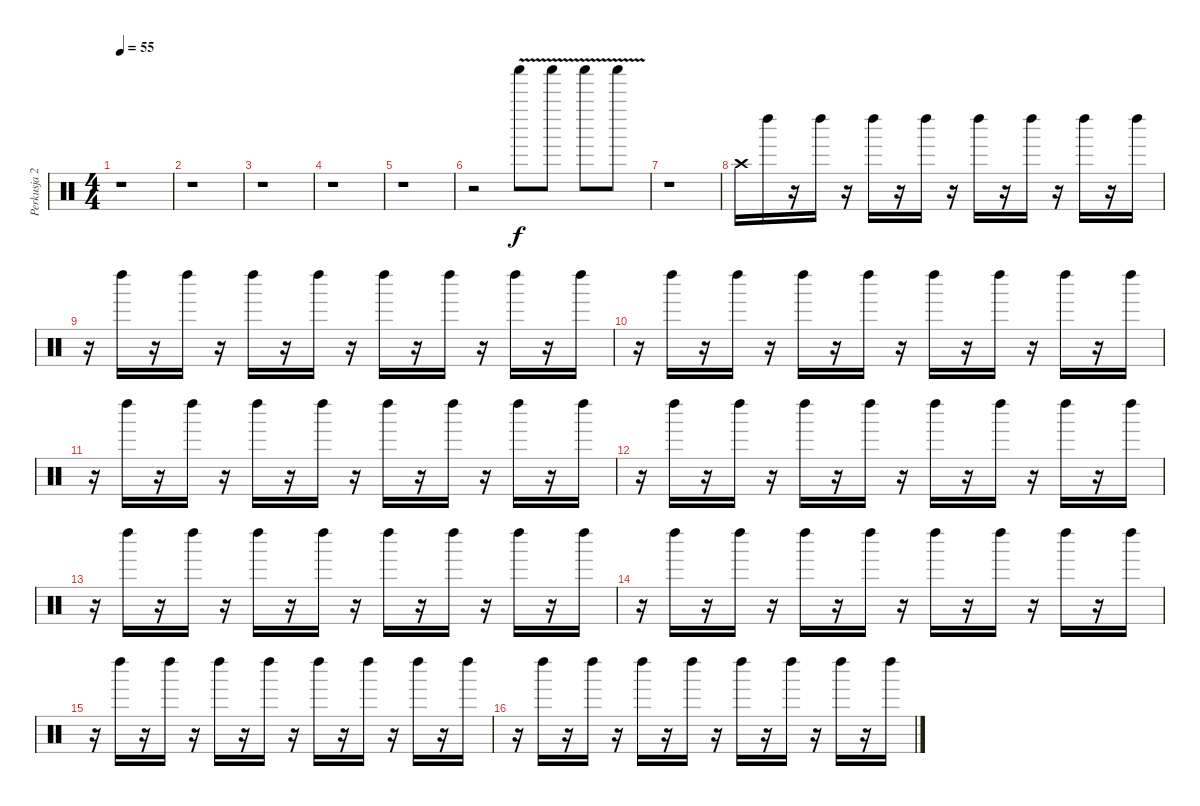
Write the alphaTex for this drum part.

\track ("Perkusja 2" "Perkusja 2") {instrument percussion}
\staff {score}
\articulation defaults
\ts (4 4)
\tempo 55
\clef neutral
\ks c
r.1{dy f} |
r.1 |
r.1 |
r.1 |
r.1 |
r.2 "Shaker (hit)"{v}.8 "Shaker (hit)"{v}.8 "Shaker (hit)"{v}.8 "Shaker (hit)"{v}.8 |
r.1 |
"Crash high (hit)".16 "Left Maraca (hit)".16 r.16 "Left Maraca (hit)".16 r.16 "Left Maraca (hit)".16 r.16 "Left Maraca (hit)".16 r.16 "Left Maraca (hit)".16 r.16 "Left Maraca (hit)".16 r.16 "Left Maraca (hit)".16 r.16 "Left Maraca (hit)".16 |
r.16 "Left Maraca (hit)".16 r.16 "Left Maraca (hit)".16 r.16 "Left Maraca (hit)".16 r.16 "Left Maraca (hit)".16 r.16 "Left Maraca (hit)".16 r.16 "Left Maraca (hit)".16 r.16 "Left Maraca (hit)".16 r.16 "Left Maraca (hit)".16 |
r.16 "Left Maraca (hit)".16 r.16 "Left Maraca (hit)".16 r.16 "Left Maraca (hit)".16 r.16 "Left Maraca (hit)".16 r.16 "Left Maraca (hit)".16 r.16 "Left Maraca (hit)".16 r.16 "Left Maraca (hit)".16 r.16 "Left Maraca (hit)".16 |
r.16 "Left Maraca (hit)".16 r.16 "Left Maraca (hit)".16 r.16 "Left Maraca (hit)".16 r.16 "Left Maraca (hit)".16 r.16 "Left Maraca (hit)".16 r.16 "Left Maraca (hit)".16 r.16 "Left Maraca (hit)".16 r.16 "Left Maraca (hit)".16 |
r.16 "Left Maraca (hit)".16 r.16 "Left Maraca (hit)".16 r.16 "Left Maraca (hit)".16 r.16 "Left Maraca (hit)".16 r.16 "Left Maraca (hit)".16 r.16 "Left Maraca (hit)".16 r.16 "Left Maraca (hit)".16 r.16 "Left Maraca (hit)".16 |
r.16 "Left Maraca (hit)".16 r.16 "Left Maraca (hit)".16 r.16 "Left Maraca (hit)".16 r.16 "Left Maraca (hit)".16 r.16 "Left Maraca (hit)".16 r.16 "Left Maraca (hit)".16 r.16 "Left Maraca (hit)".16 r.16 "Left Maraca (hit)".16 |
r.16 "Left Maraca (hit)".16 r.16 "Left Maraca (hit)".16 r.16 "Left Maraca (hit)".16 r.16 "Left Maraca (hit)".16 r.16 "Left Maraca (hit)".16 r.16 "Left Maraca (hit)".16 r.16 "Left Maraca (hit)".16 r.16 "Left Maraca (hit)".16 |
r.16 "Left Maraca (hit)".16 r.16 "Left Maraca (hit)".16 r.16 "Left Maraca (hit)".16 r.16 "Left Maraca (hit)".16 r.16 "Left Maraca (hit)".16 r.16 "Left Maraca (hit)".16 r.16 "Left Maraca (hit)".16 r.16 "Left Maraca (hit)".16 |
r.16 "Left Maraca (hit)".16 r.16 "Left Maraca (hit)".16 r.16 "Left Maraca (hit)".16 r.16 "Left Maraca (hit)".16 r.16 "Left Maraca (hit)".16 r.16 "Left Maraca (hit)".16 r.16 "Left Maraca (hit)".16 r.16 "Left Maraca (hit)".16
